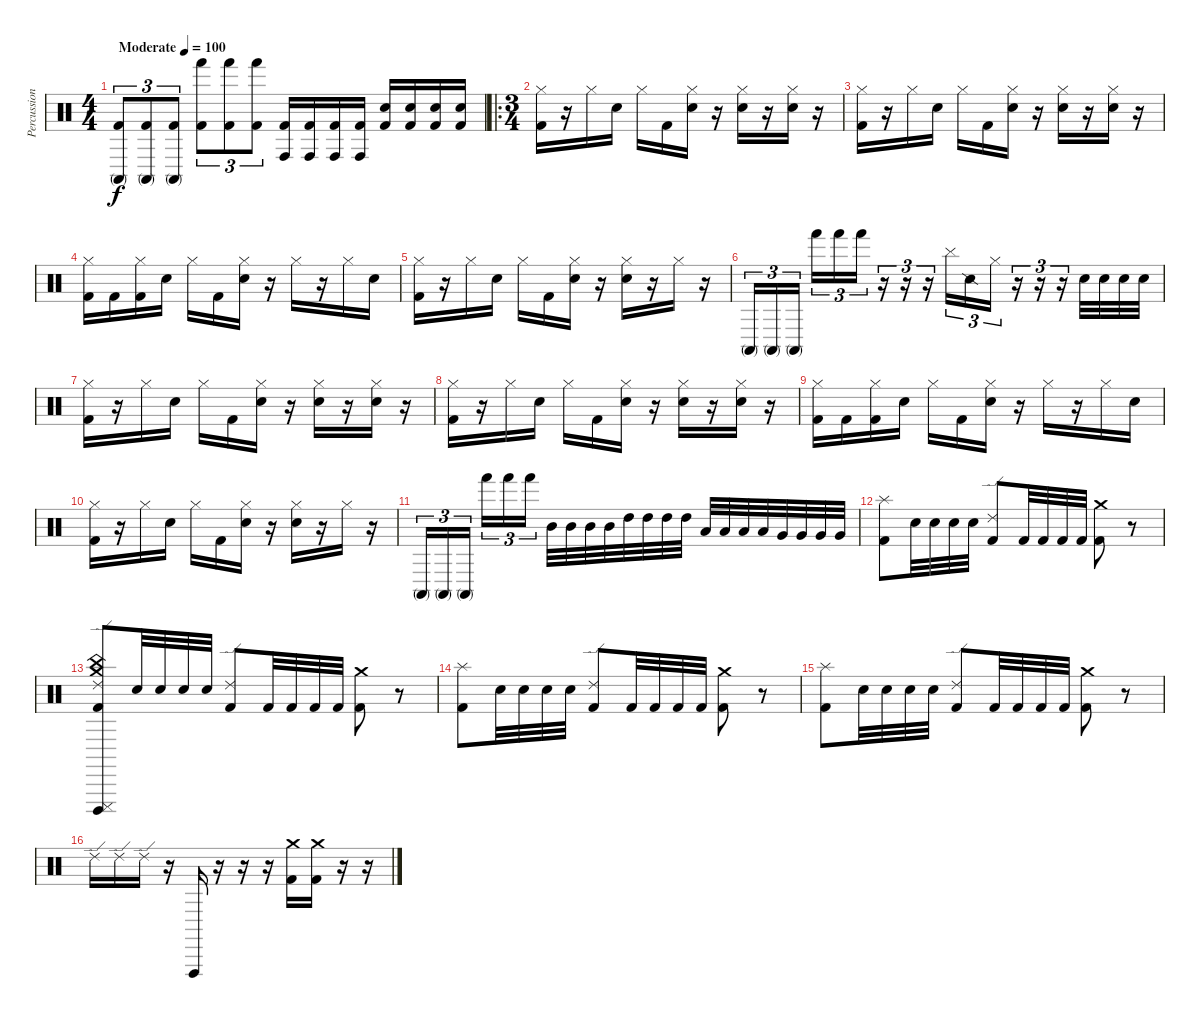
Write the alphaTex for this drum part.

\track ("Percussion" "Percussion") {instrument percussion}
\staff {score}
\articulation defaults
\ts (4 4)
\tempo (100 "Moderate")
\clef neutral
\ks c
("Kick (hit) 2" "Conga high (mute)").8{tu (3 2) dy f} ("Kick (hit) 2" "Conga high (mute)").8{tu (3 2)} ("Kick (hit) 2" "Conga high (mute)").8{tu (3 2)} ("Kick (hit) 2" "Hand (hit)").8{tu (3 2)} ("Kick (hit) 2" "Hand (hit)").8{tu (3 2)} ("Kick (hit) 2" "Hand (hit)").8{tu (3 2)} ("Kick (hit) 2" "Conga high (hit)").16 ("Kick (hit) 2" "Conga high (hit)").16 ("Kick (hit) 2" "Conga high (hit)").16 ("Kick (hit) 2" "Conga high (hit)").16 ("Kick (hit) 2" "Snare (hit) 2").16 ("Kick (hit) 2" "Snare (hit) 2").16 ("Kick (hit) 2" "Snare (hit) 2").16 ("Kick (hit) 2" "Snare (hit) 2").16 |
\ro
\ts (3 4)
("Kick (hit) 2" "Hi-Hat (closed)").16 r.16 "Hi-Hat (closed)".16 "Snare (hit) 2".16 "Hi-Hat (closed)".16 "Kick (hit) 2".16 ("Snare (hit) 2" "Hi-Hat (closed)").16 r.16 ("Snare (hit) 2" "Hi-Hat (closed)").16 r.16 ("Snare (hit) 2" "Hi-Hat (closed)").16 r.16 |
("Kick (hit) 2" "Hi-Hat (closed)").16 r.16 "Hi-Hat (closed)".16 "Snare (hit) 2".16 "Hi-Hat (closed)".16 "Kick (hit) 2".16 ("Snare (hit) 2" "Hi-Hat (closed)").16 r.16 ("Snare (hit) 2" "Hi-Hat (closed)").16 r.16 ("Snare (hit) 2" "Hi-Hat (closed)").16 r.16 |
("Kick (hit) 2" "Hi-Hat (closed)").16 "Kick (hit) 2".16 ("Kick (hit) 2" "Hi-Hat (closed)").16 "Snare (hit) 2".16 "Hi-Hat (closed)".16 "Kick (hit) 2".16 ("Snare (hit) 2" "Hi-Hat (closed)").16 r.16 "Hi-Hat (closed)".16 r.16 "Hi-Hat (closed)".16 "Snare (hit) 2".16 |
("Kick (hit) 2" "Hi-Hat (closed)").16 r.16 "Hi-Hat (closed)".16 "Snare (hit) 2".16 "Hi-Hat (closed)".16 "Kick (hit) 2".16 ("Snare (hit) 2" "Hi-Hat (closed)").16 r.16 ("Snare (hit) 2" "Hi-Hat (closed)").16 r.16 "Hi-Hat (closed)".16 r.16 |
"Conga high (mute)".16{tu (3 2)} "Conga high (mute)".16{tu (3 2)} "Conga high (mute)".16{tu (3 2) beam splitsecondary} "Hand (hit)".16{tu (3 2)} "Hand (hit)".16{tu (3 2)} "Hand (hit)".16{tu (3 2)} r.16{tu (3 2)} r.16{tu (3 2)} r.16{tu (3 2)} "Cymbal (hit)".16{tu (3 2)} "Snare (side stick) 2".16{tu (3 2)} "Hi-Hat (closed)".16{tu (3 2)} r.16{tu (3 2)} r.16{tu (3 2)} r.16{tu (3 2)} "Snare (hit) 2".32 "Snare (hit) 2".32 "Snare (hit) 2".32 "Snare (hit) 2".32 |
("Kick (hit) 2" "Hi-Hat (closed)").16 r.16 "Hi-Hat (closed)".16 "Snare (hit) 2".16 "Hi-Hat (closed)".16 "Kick (hit) 2".16 ("Snare (hit) 2" "Hi-Hat (closed)").16 r.16 ("Snare (hit) 2" "Hi-Hat (closed)").16 r.16 ("Snare (hit) 2" "Hi-Hat (closed)").16 r.16 |
("Kick (hit) 2" "Hi-Hat (closed)").16 r.16 "Hi-Hat (closed)".16 "Snare (hit) 2".16 "Hi-Hat (closed)".16 "Kick (hit) 2".16 ("Snare (hit) 2" "Hi-Hat (closed)").16 r.16 ("Snare (hit) 2" "Hi-Hat (closed)").16 r.16 ("Snare (hit) 2" "Hi-Hat (closed)").16 r.16 |
("Kick (hit) 2" "Hi-Hat (closed)").16 "Kick (hit) 2".16 ("Kick (hit) 2" "Hi-Hat (closed)").16 "Snare (hit) 2".16 "Hi-Hat (closed)".16 "Kick (hit) 2".16 ("Snare (hit) 2" "Hi-Hat (closed)").16 r.16 "Hi-Hat (closed)".16 r.16 "Hi-Hat (closed)".16 "Snare (hit) 2".16 |
("Kick (hit) 2" "Hi-Hat (closed)").16 r.16 "Hi-Hat (closed)".16 "Snare (hit) 2".16 "Hi-Hat (closed)".16 "Kick (hit) 2".16 ("Snare (hit) 2" "Hi-Hat (closed)").16 r.16 ("Snare (hit) 2" "Hi-Hat (closed)").16 r.16 "Hi-Hat (closed)".16 r.16 |
"Conga high (mute)".16{tu (3 2)} "Conga high (mute)".16{tu (3 2)} "Conga high (mute)".16{tu (3 2) beam splitsecondary} "Hand (hit)".16{tu (3 2)} "Hand (hit)".16{tu (3 2)} "Hand (hit)".16{tu (3 2)} "Mid Tom (hit)".32 "Mid Tom (hit)".32 "Mid Tom (hit)".32 "Mid Tom (hit)".32 "High Tom (hit)".32 "High Tom (hit)".32 "High Tom (hit)".32 "High Tom (hit)".32 "Low Tom (hit)".32 "Low Tom (hit)".32 "Low Tom (hit)".32 "Low Tom (hit)".32 "Very Low Tom (hit)".32 "Very Low Tom (hit)".32 "Very Low Tom (hit)".32 "Very Low Tom (hit)".32 |
("Kick (hit) 2" "Splash (hit)").8 "Snare (hit) 2".32 "Snare (hit) 2".32 "Snare (hit) 2".32 "Snare (hit) 2".32 ("Kick (hit) 2" "Ride (edge) 2").8 "Kick (hit) 2".32 "Kick (hit) 2".32 "Kick (hit) 2".32 "Kick (hit) 2".32 ("Kick (hit) 2" "Crash medium (hit)").8 r.8 |
("Cuica (mute)" "Kick (hit) 2" "Ride (edge) 2" "China (hit)" "Cuica (open)" "Crash medium (hit)").8 "Snare (hit) 2".32 "Snare (hit) 2".32 "Snare (hit) 2".32 "Snare (hit) 2".32 ("Kick (hit) 2" "Ride (edge) 2").8 "Kick (hit) 2".32 "Kick (hit) 2".32 "Kick (hit) 2".32 "Kick (hit) 2".32 ("Kick (hit) 2" "Crash medium (hit)").8 r.8 |
("Kick (hit) 2" "Splash (hit)").8 "Snare (hit) 2".32 "Snare (hit) 2".32 "Snare (hit) 2".32 "Snare (hit) 2".32 ("Kick (hit) 2" "Ride (edge) 2").8 "Kick (hit) 2".32 "Kick (hit) 2".32 "Kick (hit) 2".32 "Kick (hit) 2".32 ("Kick (hit) 2" "Crash medium (hit)").8 r.8 |
("Kick (hit) 2" "Splash (hit)").8 "Snare (hit) 2".32 "Snare (hit) 2".32 "Snare (hit) 2".32 "Snare (hit) 2".32 ("Kick (hit) 2" "Ride (edge) 2").8 "Kick (hit) 2".32 "Kick (hit) 2".32 "Kick (hit) 2".32 "Kick (hit) 2".32 ("Kick (hit) 2" "Crash medium (hit)").8 r.8 |
"Ride (edge) 2".16 "Ride (edge) 2".16 "Ride (edge) 2".16 r.16 "Vibraslap (hit)".16 r.16 r.16 r.16 ("Crash medium (hit)" "Kick (hit) 2").16 ("Crash medium (hit)" "Kick (hit) 2").16 r.16 r.16
